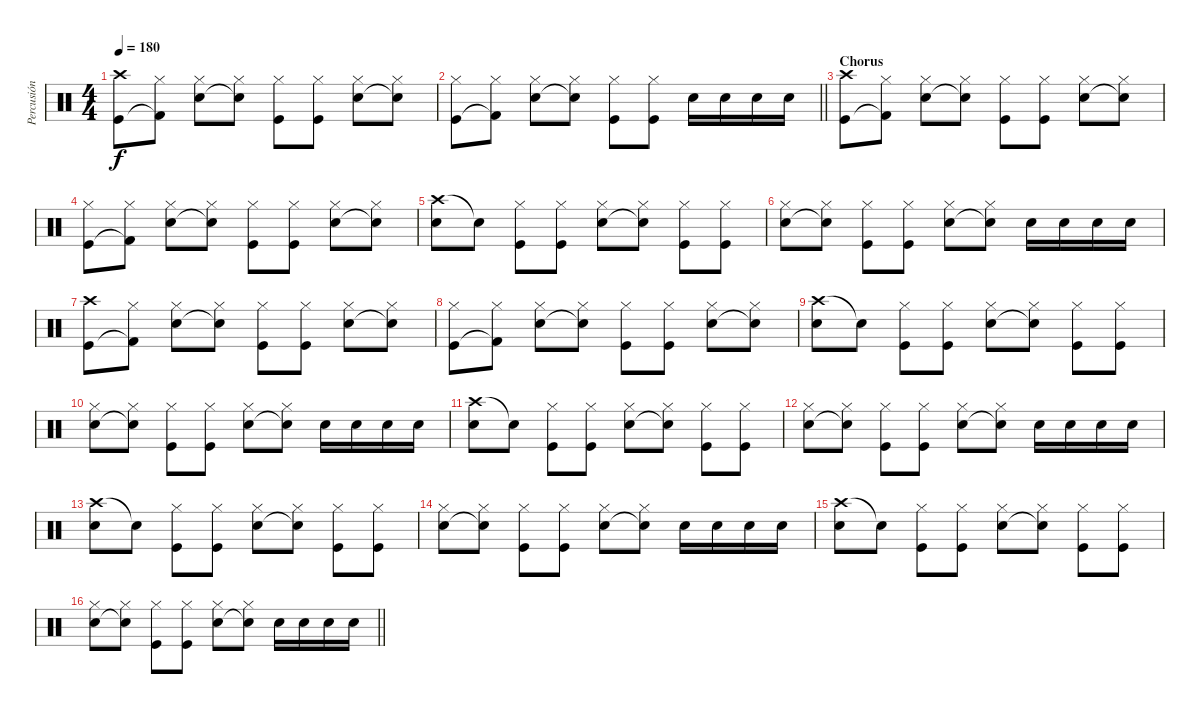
\track ("Percusión" "Percusión") {instrument percussion}
\staff {score}
\articulation defaults
\ts (4 4)
\tempo 180
\clef neutral
\ks c
("Crash high (hit)" "Kick (hit)").8{dy f} ("Hi-Hat (closed)" "Kick (hit) 2"{t}).8 ("Hi-Hat (closed)" "Snare (hit) 2").8 ("Hi-Hat (closed)" "Snare (hit)"{t}).8 ("Hi-Hat (closed)" "Kick (hit)").8 ("Hi-Hat (closed)" "Kick (hit)").8 ("Hi-Hat (closed)" "Snare (hit) 2").8 ("Hi-Hat (closed)" "Snare (hit)"{t}).8 |
\barLineRight lightlight
("Hi-Hat (closed)" "Kick (hit)").8 ("Hi-Hat (closed)" "Kick (hit) 2"{t}).8 ("Hi-Hat (closed)" "Snare (hit) 2").8 ("Hi-Hat (closed)" "Snare (hit)"{t}).8 ("Hi-Hat (closed)" "Kick (hit)").8 ("Hi-Hat (closed)" "Kick (hit)").8 "Snare (hit) 2".16 "Snare (hit) 2".16 "Snare (hit) 2".16 "Snare (hit) 2".16 |
\section ("" "Chorus")
("Crash high (hit)" "Kick (hit)").8 ("Hi-Hat (closed)" "Kick (hit) 2"{t}).8 ("Hi-Hat (closed)" "Snare (hit) 2").8 ("Hi-Hat (closed)" "Snare (hit)"{t}).8 ("Hi-Hat (closed)" "Kick (hit)").8 ("Hi-Hat (closed)" "Kick (hit)").8 ("Hi-Hat (closed)" "Snare (hit) 2").8 ("Hi-Hat (closed)" "Snare (hit)"{t}).8 |
("Hi-Hat (closed)" "Kick (hit)").8 ("Hi-Hat (closed)" "Kick (hit) 2"{t}).8 ("Hi-Hat (closed)" "Snare (hit) 2").8 ("Hi-Hat (closed)" "Snare (hit)"{t}).8 ("Hi-Hat (closed)" "Kick (hit)").8 ("Hi-Hat (closed)" "Kick (hit)").8 ("Hi-Hat (closed)" "Snare (hit) 2").8 ("Hi-Hat (closed)" "Snare (hit)"{t}).8 |
("Crash high (hit)" "Snare (hit) 2").8 "Snare (hit)"{t}.8 ("Hi-Hat (closed)" "Kick (hit)").8 ("Hi-Hat (closed)" "Kick (hit)").8 ("Hi-Hat (closed)" "Snare (hit) 2").8 ("Hi-Hat (closed)" "Snare (hit)"{t}).8 ("Hi-Hat (closed)" "Kick (hit)").8 ("Hi-Hat (closed)" "Kick (hit)").8 |
("Hi-Hat (closed)" "Snare (hit) 2").8 ("Hi-Hat (closed)" "Snare (hit)"{t}).8 ("Hi-Hat (closed)" "Kick (hit)").8 ("Hi-Hat (closed)" "Kick (hit)").8 ("Hi-Hat (closed)" "Snare (hit) 2").8 ("Hi-Hat (closed)" "Snare (hit) 2"{t}).8 "Snare (hit) 2".16 "Snare (hit) 2".16 "Snare (hit) 2".16 "Snare (hit) 2".16 |
("Crash high (hit)" "Kick (hit)").8 ("Hi-Hat (closed)" "Kick (hit) 2"{t}).8 ("Hi-Hat (closed)" "Snare (hit) 2").8 ("Hi-Hat (closed)" "Snare (hit)"{t}).8 ("Hi-Hat (closed)" "Kick (hit)").8 ("Hi-Hat (closed)" "Kick (hit)").8 ("Hi-Hat (closed)" "Snare (hit) 2").8 ("Hi-Hat (closed)" "Snare (hit)"{t}).8 |
("Hi-Hat (closed)" "Kick (hit)").8 ("Hi-Hat (closed)" "Kick (hit) 2"{t}).8 ("Hi-Hat (closed)" "Snare (hit) 2").8 ("Hi-Hat (closed)" "Snare (hit)"{t}).8 ("Hi-Hat (closed)" "Kick (hit)").8 ("Hi-Hat (closed)" "Kick (hit)").8 ("Hi-Hat (closed)" "Snare (hit) 2").8 ("Hi-Hat (closed)" "Snare (hit)"{t}).8 |
("Crash high (hit)" "Snare (hit) 2").8 "Snare (hit)"{t}.8 ("Hi-Hat (closed)" "Kick (hit)").8 ("Hi-Hat (closed)" "Kick (hit)").8 ("Hi-Hat (closed)" "Snare (hit) 2").8 ("Hi-Hat (closed)" "Snare (hit)"{t}).8 ("Hi-Hat (closed)" "Kick (hit)").8 ("Hi-Hat (closed)" "Kick (hit)").8 |
("Hi-Hat (closed)" "Snare (hit) 2").8 ("Hi-Hat (closed)" "Snare (hit)"{t}).8 ("Hi-Hat (closed)" "Kick (hit)").8 ("Hi-Hat (closed)" "Kick (hit)").8 ("Hi-Hat (closed)" "Snare (hit) 2").8 ("Hi-Hat (closed)" "Snare (hit) 2"{t}).8 "Snare (hit) 2".16 "Snare (hit) 2".16 "Snare (hit) 2".16 "Snare (hit) 2".16 |
("Crash high (hit)" "Snare (hit) 2").8 "Snare (hit)"{t}.8 ("Hi-Hat (closed)" "Kick (hit)").8 ("Hi-Hat (closed)" "Kick (hit)").8 ("Hi-Hat (closed)" "Snare (hit) 2").8 ("Hi-Hat (closed)" "Snare (hit)"{t}).8 ("Hi-Hat (closed)" "Kick (hit)").8 ("Hi-Hat (closed)" "Kick (hit)").8 |
("Hi-Hat (closed)" "Snare (hit) 2").8 ("Hi-Hat (closed)" "Snare (hit)"{t}).8 ("Hi-Hat (closed)" "Kick (hit)").8 ("Hi-Hat (closed)" "Kick (hit)").8 ("Hi-Hat (closed)" "Snare (hit) 2").8 ("Hi-Hat (closed)" "Snare (hit) 2"{t}).8 "Snare (hit) 2".16 "Snare (hit) 2".16 "Snare (hit) 2".16 "Snare (hit) 2".16 |
("Crash high (hit)" "Snare (hit) 2").8 "Snare (hit)"{t}.8 ("Hi-Hat (closed)" "Kick (hit)").8 ("Hi-Hat (closed)" "Kick (hit)").8 ("Hi-Hat (closed)" "Snare (hit) 2").8 ("Hi-Hat (closed)" "Snare (hit)"{t}).8 ("Hi-Hat (closed)" "Kick (hit)").8 ("Hi-Hat (closed)" "Kick (hit)").8 |
("Hi-Hat (closed)" "Snare (hit) 2").8 ("Hi-Hat (closed)" "Snare (hit)"{t}).8 ("Hi-Hat (closed)" "Kick (hit)").8 ("Hi-Hat (closed)" "Kick (hit)").8 ("Hi-Hat (closed)" "Snare (hit) 2").8 ("Hi-Hat (closed)" "Snare (hit) 2"{t}).8 "Snare (hit) 2".16 "Snare (hit) 2".16 "Snare (hit) 2".16 "Snare (hit) 2".16 |
("Crash high (hit)" "Snare (hit) 2").8 "Snare (hit)"{t}.8 ("Hi-Hat (closed)" "Kick (hit)").8 ("Hi-Hat (closed)" "Kick (hit)").8 ("Hi-Hat (closed)" "Snare (hit) 2").8 ("Hi-Hat (closed)" "Snare (hit)"{t}).8 ("Hi-Hat (closed)" "Kick (hit)").8 ("Hi-Hat (closed)" "Kick (hit)").8 |
\barLineRight lightlight
("Hi-Hat (closed)" "Snare (hit) 2").8 ("Hi-Hat (closed)" "Snare (hit)"{t}).8 ("Hi-Hat (closed)" "Kick (hit)").8 ("Hi-Hat (closed)" "Kick (hit)").8 ("Hi-Hat (closed)" "Snare (hit) 2").8 ("Hi-Hat (closed)" "Snare (hit) 2"{t}).8 "Snare (hit) 2".16 "Snare (hit) 2".16 "Snare (hit) 2".16 "Snare (hit) 2".16
